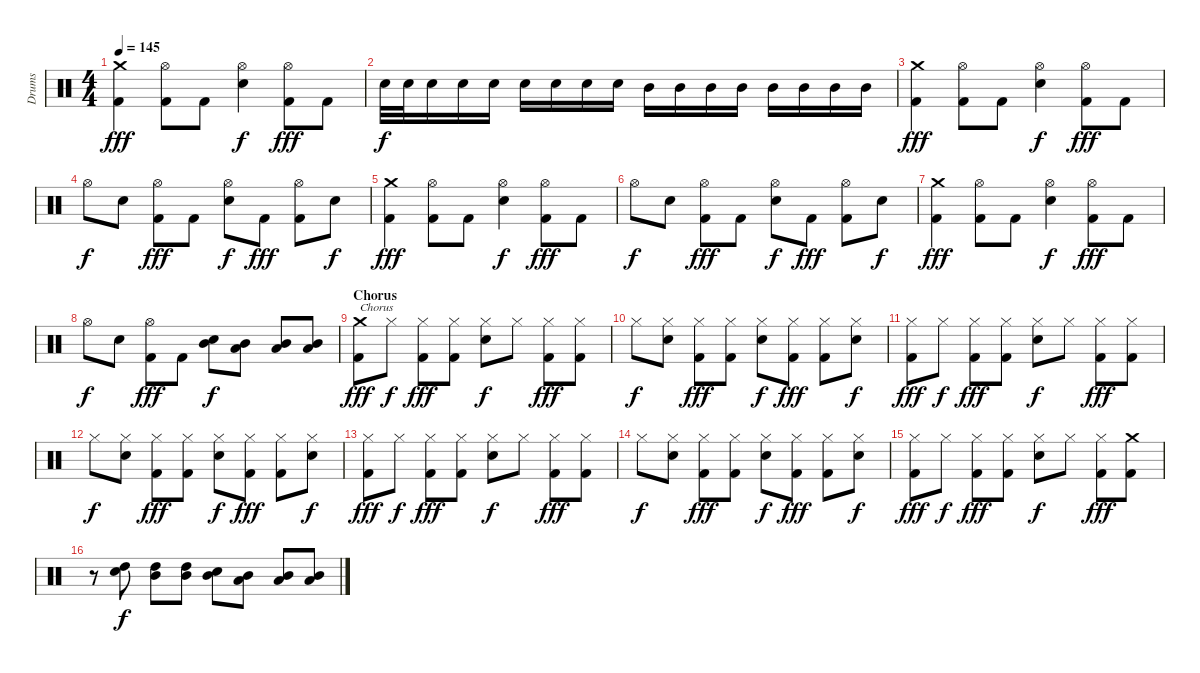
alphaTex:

\track ("Drums" "Drums") {instrument percussion}
\staff {score}
\articulation defaults
\ts (4 4)
\tempo 145
\clef neutral
\ks c
("Crash medium (hit)" "Kick (hit) 2").4{dy fff} ("Hi-Hat (open)" "Kick (hit) 2").8 "Kick (hit) 2".8 ("Hi-Hat (open)" "Snare (hit) 2").4{dy f} ("Hi-Hat (open)" "Kick (hit) 2").8{dy fff} "Kick (hit) 2".8 |
"Snare (hit) 2".32{dy f} "Snare (hit) 2".32 "Snare (hit) 2".16 "Snare (hit) 2".16 "Snare (hit) 2".16 "Snare (hit) 2".16 "Snare (hit) 2".16 "Snare (hit) 2".16 "Snare (hit) 2".16 "Mid Tom (hit)".16 "Mid Tom (hit)".16 "Mid Tom (hit)".16 "Mid Tom (hit)".16 "Mid Tom (hit)".16 "Mid Tom (hit)".16 "Mid Tom (hit)".16 "Mid Tom (hit)".16 |
("Crash medium (hit)" "Kick (hit) 2").4{dy fff} ("Hi-Hat (open)" "Kick (hit) 2").8 "Kick (hit) 2".8 ("Hi-Hat (open)" "Snare (hit) 2").4{dy f} ("Hi-Hat (open)" "Kick (hit) 2").8{dy fff} "Kick (hit) 2".8 |
"Hi-Hat (open)".8{dy f} "Snare (hit) 2".8 ("Hi-Hat (open)" "Kick (hit) 2").8{dy fff} "Kick (hit) 2".8 ("Hi-Hat (open)" "Snare (hit) 2").8{dy f} "Kick (hit) 2".8{dy fff} ("Hi-Hat (open)" "Kick (hit) 2").8 "Snare (hit) 2".8{dy f} |
("Crash medium (hit)" "Kick (hit) 2").4{dy fff} ("Hi-Hat (open)" "Kick (hit) 2").8 "Kick (hit) 2".8 ("Hi-Hat (open)" "Snare (hit) 2").4{dy f} ("Hi-Hat (open)" "Kick (hit) 2").8{dy fff} "Kick (hit) 2".8 |
"Hi-Hat (open)".8{dy f} "Snare (hit) 2".8 ("Hi-Hat (open)" "Kick (hit) 2").8{dy fff} "Kick (hit) 2".8 ("Hi-Hat (open)" "Snare (hit) 2").8{dy f} "Kick (hit) 2".8{dy fff} ("Hi-Hat (open)" "Kick (hit) 2").8 "Snare (hit) 2".8{dy f} |
("Crash medium (hit)" "Kick (hit) 2").4{dy fff} ("Hi-Hat (open)" "Kick (hit) 2").8 "Kick (hit) 2".8 ("Hi-Hat (open)" "Snare (hit) 2").4{dy f} ("Hi-Hat (open)" "Kick (hit) 2").8{dy fff} "Kick (hit) 2".8 |
"Hi-Hat (open)".8{dy f} "Snare (hit) 2".8 ("Hi-Hat (open)" "Kick (hit) 2").8{dy fff} "Kick (hit) 2".8 ("Snare (hit) 2" "Mid Tom (hit)").8{dy f} ("Mid Tom (hit)" "Low Tom (hit)").8 ("Mid Tom (hit)" "Low Tom (hit)").8 ("Mid Tom (hit)" "Low Tom (hit)").8 |
\section ("" "Chorus")
("Crash medium (hit)" "Kick (hit) 2").8{txt "Chorus" dy fff} "Hi-Hat (closed)".8{dy f} ("Hi-Hat (closed)" "Kick (hit) 2").8{dy fff} ("Hi-Hat (closed)" "Kick (hit) 2").8 ("Hi-Hat (closed)" "Snare (hit) 2").8{dy f} "Hi-Hat (closed)".8 ("Hi-Hat (closed)" "Kick (hit) 2").8{dy fff} ("Hi-Hat (closed)" "Kick (hit) 2").8 |
"Hi-Hat (closed)".8{dy f} ("Hi-Hat (closed)" "Snare (hit) 2").8 ("Hi-Hat (closed)" "Kick (hit) 2").8{dy fff} ("Hi-Hat (closed)" "Kick (hit) 2").8 ("Hi-Hat (closed)" "Snare (hit) 2").8{dy f} ("Hi-Hat (closed)" "Kick (hit) 2").8{dy fff} ("Hi-Hat (closed)" "Kick (hit) 2").8 ("Hi-Hat (closed)" "Snare (hit) 2").8{dy f} |
("Hi-Hat (closed)" "Kick (hit) 2").8{dy fff} "Hi-Hat (closed)".8{dy f} ("Hi-Hat (closed)" "Kick (hit) 2").8{dy fff} ("Hi-Hat (closed)" "Kick (hit) 2").8 ("Hi-Hat (closed)" "Snare (hit) 2").8{dy f} "Hi-Hat (closed)".8 ("Hi-Hat (closed)" "Kick (hit) 2").8{dy fff} ("Hi-Hat (closed)" "Kick (hit) 2").8 |
"Hi-Hat (closed)".8{dy f} ("Hi-Hat (closed)" "Snare (hit) 2").8 ("Hi-Hat (closed)" "Kick (hit) 2").8{dy fff} ("Hi-Hat (closed)" "Kick (hit) 2").8 ("Hi-Hat (closed)" "Snare (hit) 2").8{dy f} ("Hi-Hat (closed)" "Kick (hit) 2").8{dy fff} ("Hi-Hat (closed)" "Kick (hit) 2").8 ("Hi-Hat (closed)" "Snare (hit) 2").8{dy f} |
("Hi-Hat (closed)" "Kick (hit) 2").8{dy fff} "Hi-Hat (closed)".8{dy f} ("Hi-Hat (closed)" "Kick (hit) 2").8{dy fff} ("Hi-Hat (closed)" "Kick (hit) 2").8 ("Hi-Hat (closed)" "Snare (hit) 2").8{dy f} "Hi-Hat (closed)".8 ("Hi-Hat (closed)" "Kick (hit) 2").8{dy fff} ("Hi-Hat (closed)" "Kick (hit) 2").8 |
"Hi-Hat (closed)".8{dy f} ("Hi-Hat (closed)" "Snare (hit) 2").8 ("Hi-Hat (closed)" "Kick (hit) 2").8{dy fff} ("Hi-Hat (closed)" "Kick (hit) 2").8 ("Hi-Hat (closed)" "Snare (hit) 2").8{dy f} ("Hi-Hat (closed)" "Kick (hit) 2").8{dy fff} ("Hi-Hat (closed)" "Kick (hit) 2").8 ("Hi-Hat (closed)" "Snare (hit) 2").8{dy f} |
("Hi-Hat (closed)" "Kick (hit) 2").8{dy fff} "Hi-Hat (closed)".8{dy f} ("Hi-Hat (closed)" "Kick (hit) 2").8{dy fff} ("Hi-Hat (closed)" "Kick (hit) 2").8 ("Hi-Hat (closed)" "Snare (hit) 2").8{dy f} "Hi-Hat (closed)".8 ("Hi-Hat (closed)" "Kick (hit) 2").8{dy fff} ("Crash medium (hit)" "Kick (hit) 2").8 |
r.8 ("Snare (hit) 2" "High Tom (hit)").8{dy f} ("High Tom (hit)" "Mid Tom (hit)").8 ("High Tom (hit)" "Mid Tom (hit)").8 ("Snare (hit) 2" "Mid Tom (hit)").8 ("Mid Tom (hit)" "Low Tom (hit)").8 ("Mid Tom (hit)" "Low Tom (hit)").8 ("Mid Tom (hit)" "Low Tom (hit)").8
